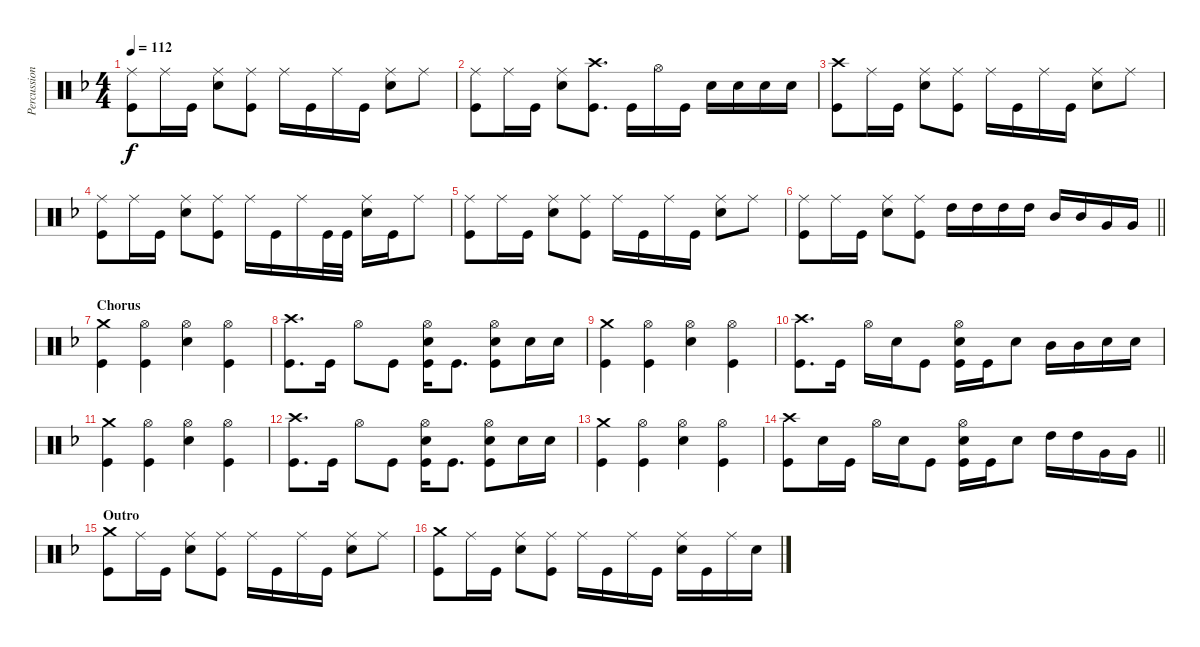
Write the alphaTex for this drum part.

\track ("Percussion" "Percussion") {instrument percussion}
\staff {score}
\articulation defaults
\ts (4 4)
\tempo 112
\clef neutral
\ks f
("Ride (middle)" "Kick (hit)").8{dy f} "Ride (middle)".16 "Kick (hit)".16 ("Ride (middle)" "Electric Snare (hit)").8 ("Ride (middle)" "Kick (hit)").8 "Ride (middle)".16 "Kick (hit)".16 "Ride (middle)".16 "Kick (hit)".16 ("Ride (middle)" "Electric Snare (hit)").8 "Ride (middle)".8 |
("Ride (middle)" "Kick (hit)").8 "Ride (middle)".16 "Kick (hit)".16 ("Ride (middle)" "Electric Snare (hit)").8 ("Crash high (hit)" "Kick (hit)").8{d} "Kick (hit)".16 "Hi-Hat (open)".16 "Kick (hit)".16 "Electric Snare (hit)".16 "Electric Snare (hit)".16 "Electric Snare (hit)".16 "Electric Snare (hit)".16 |
("Crash high (hit)" "Kick (hit)").8 "Ride (middle)".16 "Kick (hit)".16 ("Ride (middle)" "Electric Snare (hit)").8 ("Ride (middle)" "Kick (hit)").8 "Ride (middle)".16 "Kick (hit)".16 "Ride (middle)".16 "Kick (hit)".16 ("Ride (middle)" "Electric Snare (hit)").8 "Ride (middle)".8 |
("Ride (middle)" "Kick (hit)").8 "Ride (middle)".16 "Kick (hit)".16 ("Ride (middle)" "Electric Snare (hit)").8 ("Ride (middle)" "Kick (hit)").8 "Ride (middle)".16 "Kick (hit)".16 "Ride (middle)".16 "Kick (hit)".32 "Kick (hit)".32 ("Ride (middle)" "Electric Snare (hit)").16 "Kick (hit)".16 "Ride (middle)".8 |
("Ride (middle)" "Kick (hit)").8 "Ride (middle)".16 "Kick (hit)".16 ("Ride (middle)" "Electric Snare (hit)").8 ("Ride (middle)" "Kick (hit)").8 "Ride (middle)".16 "Kick (hit)".16 "Ride (middle)".16 "Kick (hit)".16 ("Ride (middle)" "Electric Snare (hit)").8 "Ride (middle)".8 |
\barLineRight lightlight
("Ride (middle)" "Kick (hit)").8 "Ride (middle)".16 "Kick (hit)".16 ("Ride (middle)" "Electric Snare (hit)").8 ("Ride (middle)" "Kick (hit)").8 "High Tom (hit)".16 "High Tom (hit)".16 "High Tom (hit)".16 "High Tom (hit)".16 "Mid Tom (hit)".16 "Mid Tom (hit)".16 "Very Low Tom (hit)".16 "Very Low Tom (hit)".16 |
\section ("" "Chorus")
("Crash medium (hit)" "Kick (hit)").4 ("Hi-Hat (open)" "Kick (hit)").4 ("Hi-Hat (open)" "Electric Snare (hit)").4 ("Hi-Hat (open)" "Kick (hit)").4 |
("Crash high (hit)" "Kick (hit)").8{d} "Kick (hit)".16 "Hi-Hat (open)".8 "Kick (hit)".8 ("Hi-Hat (open)" "Electric Snare (hit)" "Kick (hit)").16 "Kick (hit)".8{d} ("Hi-Hat (open)" "Electric Snare (hit)" "Kick (hit)").8 "Electric Snare (hit)".16 "Electric Snare (hit)".16 |
("Crash medium (hit)" "Kick (hit)").4 ("Hi-Hat (open)" "Kick (hit)").4 ("Hi-Hat (open)" "Electric Snare (hit)").4 ("Hi-Hat (open)" "Kick (hit)").4 |
("Crash high (hit)" "Kick (hit)").8{d} "Kick (hit)".16 "Hi-Hat (open)".16 "Electric Snare (hit)".16 "Kick (hit)".8 ("Hi-Hat (open)" "Electric Snare (hit)" "Kick (hit)").16 "Kick (hit)".16 "Electric Snare (hit)".8 "Mid Tom (hit)".16 "Mid Tom (hit)".16 "Electric Snare (hit)".16 "Electric Snare (hit)".16 |
("Crash medium (hit)" "Kick (hit)").4 ("Hi-Hat (open)" "Kick (hit)").4 ("Hi-Hat (open)" "Electric Snare (hit)").4 ("Hi-Hat (open)" "Kick (hit)").4 |
("Crash high (hit)" "Kick (hit)").8{d} "Kick (hit)".16 "Hi-Hat (open)".8 "Kick (hit)".8 ("Hi-Hat (open)" "Electric Snare (hit)" "Kick (hit)").16 "Kick (hit)".8{d} ("Hi-Hat (open)" "Electric Snare (hit)" "Kick (hit)").8 "Electric Snare (hit)".16 "Electric Snare (hit)".16 |
("Crash medium (hit)" "Kick (hit)").4 ("Hi-Hat (open)" "Kick (hit)").4 ("Hi-Hat (open)" "Electric Snare (hit)").4 ("Hi-Hat (open)" "Kick (hit)").4 |
\barLineRight lightlight
("Crash high (hit)" "Kick (hit)").8 "Electric Snare (hit)".16 "Kick (hit)".16 "Hi-Hat (open)".16 "Electric Snare (hit)".16 "Kick (hit)".8 ("Hi-Hat (open)" "Electric Snare (hit)" "Kick (hit)").16 "Kick (hit)".16 "Electric Snare (hit)".8 "High Tom (hit)".16 "High Tom (hit)".16 "Very Low Tom (hit)".16 "Very Low Tom (hit)".16 |
\section ("" "Outro")
("Crash medium (hit)" "Kick (hit)").8 "Ride (middle)".16 "Kick (hit)".16 ("Ride (middle)" "Electric Snare (hit)").8 ("Ride (middle)" "Kick (hit)").8 "Ride (middle)".16 "Kick (hit)".16 "Ride (middle)".16 "Kick (hit)".16 ("Ride (middle)" "Electric Snare (hit)").8 "Ride (middle)".8 |
("Crash medium (hit)" "Kick (hit)").8 "Ride (middle)".16 "Kick (hit)".16 ("Ride (middle)" "Electric Snare (hit)").8 ("Ride (middle)" "Kick (hit)").8 "Ride (middle)".16 "Kick (hit)".16 "Ride (middle)".16 "Kick (hit)".16 ("Ride (middle)" "Electric Snare (hit)").16 "Kick (hit)".16 "Ride (middle)".16 "Electric Snare (hit)".16
